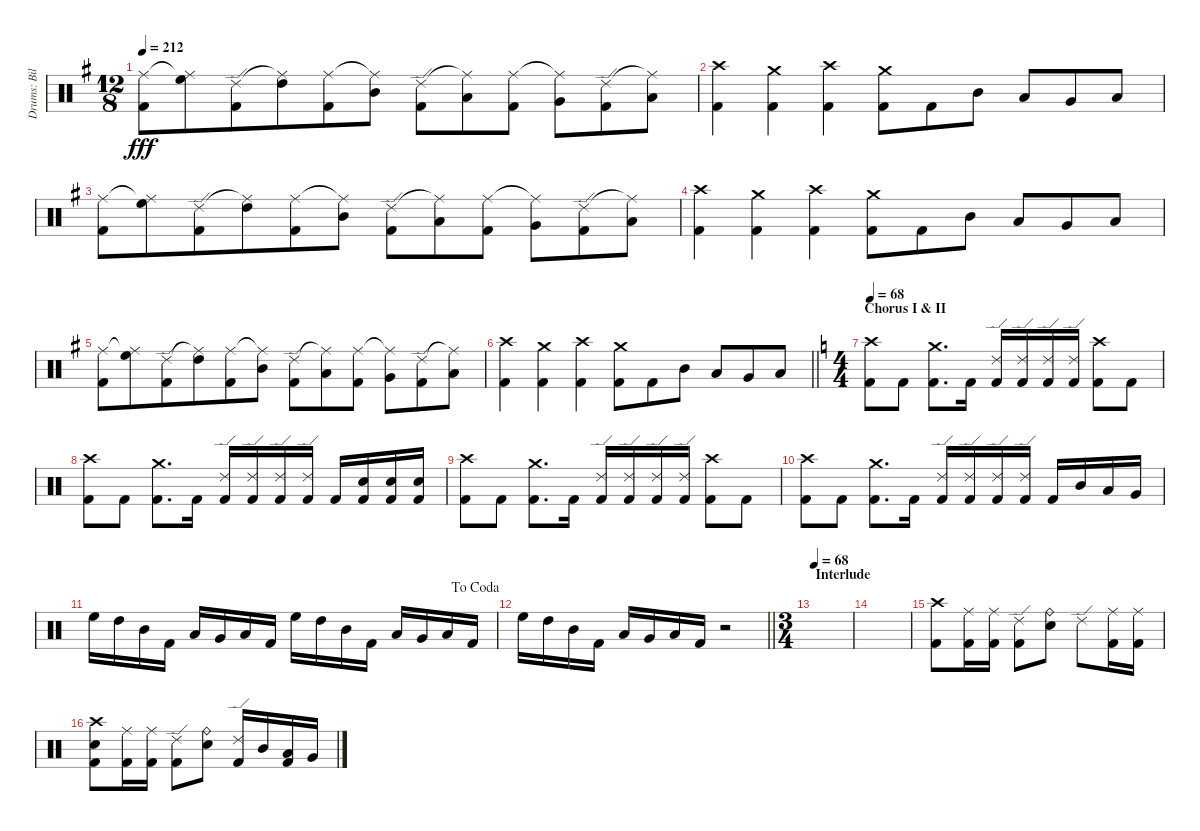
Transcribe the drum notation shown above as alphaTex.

\track ("Drums: Bill" "Drums: Bil") {instrument percussion}
\staff {score}
\articulation defaults
\ts (12 8)
\tempo 212
\clef neutral
\ks g
("Ride (middle)" "Kick (hit) 2").8{dy fff} ("Ride (middle)"{t} "High Floor Tom (hit)").8 ("Ride (edge) 2" "Kick (hit) 2").8{beam merge} ("Ride (middle)"{t} "High Tom (hit)").8 ("Ride (middle)" "Kick (hit) 2").8 ("Ride (middle)"{t} "Mid Tom (hit)").8 ("Ride (edge) 2" "Kick (hit) 2").8{beam merge} ("Ride (middle)"{t} "Low Tom (hit)").8 ("Ride (middle)" "Kick (hit) 2").8 ("Ride (middle)"{t} "Very Low Tom (hit)").8 ("Ride (edge) 2" "Kick (hit) 2").8{beam merge} ("Ride (middle)"{t} "Low Floor Tom (hit)").8 |
("Crash high (hit)" "Kick (hit) 2").4 ("Crash medium (hit)" "Kick (hit) 2").4 ("Crash high (hit)" "Kick (hit) 2").4 ("Crash medium (hit)" "Kick (hit) 2").8 "Kick (hit) 2".8 "Mid Tom (hit)".8 "Low Tom (hit)".8 "Very Low Tom (hit)".8 "Low Floor Tom (hit)".8 |
("Ride (middle)" "Kick (hit) 2").8 ("Ride (middle)"{t} "High Floor Tom (hit)").8 ("Ride (edge) 2" "Kick (hit) 2").8{beam merge} ("Ride (middle)"{t} "High Tom (hit)").8 ("Ride (middle)" "Kick (hit) 2").8 ("Ride (middle)"{t} "Mid Tom (hit)").8 ("Ride (edge) 2" "Kick (hit) 2").8{beam merge} ("Ride (middle)"{t} "Low Tom (hit)").8 ("Ride (middle)" "Kick (hit) 2").8 ("Ride (middle)"{t} "Very Low Tom (hit)").8 ("Ride (edge) 2" "Kick (hit) 2").8{beam merge} ("Ride (middle)"{t} "Low Floor Tom (hit)").8 |
("Crash high (hit)" "Kick (hit) 2").4 ("Crash medium (hit)" "Kick (hit) 2").4 ("Crash high (hit)" "Kick (hit) 2").4 ("Crash medium (hit)" "Kick (hit) 2").8 "Kick (hit) 2".8 "Mid Tom (hit)".8 "Low Tom (hit)".8 "Very Low Tom (hit)".8 "Low Floor Tom (hit)".8 |
("Ride (middle)" "Kick (hit) 2").8 ("Ride (middle)"{t} "High Floor Tom (hit)").8 ("Ride (edge) 2" "Kick (hit) 2").8{beam merge} ("Ride (middle)"{t} "High Tom (hit)").8 ("Ride (middle)" "Kick (hit) 2").8 ("Ride (middle)"{t} "Mid Tom (hit)").8 ("Ride (edge) 2" "Kick (hit) 2").8{beam merge} ("Ride (middle)"{t} "Low Tom (hit)").8 ("Ride (middle)" "Kick (hit) 2").8 ("Ride (middle)"{t} "Very Low Tom (hit)").8 ("Ride (edge) 2" "Kick (hit) 2").8{beam merge} ("Ride (middle)"{t} "Low Floor Tom (hit)").8 |
\barLineRight lightlight
("Crash high (hit)" "Kick (hit) 2").4 ("Crash medium (hit)" "Kick (hit) 2").4 ("Crash high (hit)" "Kick (hit) 2").4 ("Crash medium (hit)" "Kick (hit) 2").8 "Kick (hit) 2".8 "Mid Tom (hit)".8 "Low Tom (hit)".8 "Very Low Tom (hit)".8 "Low Floor Tom (hit)".8 |
\ts (4 4)
\section ("" "Chorus I & II")
\tempo 68
\ks c
("Crash high (hit)" "Kick (hit) 2").8 "Kick (hit) 2".8 ("Crash medium (hit)" "Kick (hit) 2").8{d} "Kick (hit) 2".16 ("Ride (edge) 2" "Kick (hit) 2").16 ("Ride (edge) 2" "Kick (hit) 2").16 ("Ride (edge) 2" "Kick (hit) 2").16 ("Ride (edge) 2" "Kick (hit) 2").16 ("Crash high (hit)" "Kick (hit) 2").8 "Kick (hit) 2".8 |
("Crash high (hit)" "Kick (hit) 2").8 "Kick (hit) 2".8 ("Crash medium (hit)" "Kick (hit) 2").8{d} "Kick (hit) 2".16 ("Ride (edge) 2" "Kick (hit) 2").16 ("Ride (edge) 2" "Kick (hit) 2").16 ("Ride (edge) 2" "Kick (hit) 2").16 ("Ride (edge) 2" "Kick (hit) 2").16 "Kick (hit) 2".16 ("Electric Snare (hit)" "Kick (hit) 2").16 ("Electric Snare (hit)" "Kick (hit) 2").16 ("Electric Snare (hit)" "Kick (hit) 2").16 |
("Crash high (hit)" "Kick (hit) 2").8 "Kick (hit) 2".8 ("Crash medium (hit)" "Kick (hit) 2").8{d} "Kick (hit) 2".16 ("Ride (edge) 2" "Kick (hit) 2").16 ("Ride (edge) 2" "Kick (hit) 2").16 ("Ride (edge) 2" "Kick (hit) 2").16 ("Ride (edge) 2" "Kick (hit) 2").16 ("Crash high (hit)" "Kick (hit) 2").8 "Kick (hit) 2".8 |
("Crash high (hit)" "Kick (hit) 2").8 "Kick (hit) 2".8 ("Crash medium (hit)" "Kick (hit) 2").8{d} "Kick (hit) 2".16 ("Ride (edge) 2" "Kick (hit) 2").16 ("Ride (edge) 2" "Kick (hit) 2").16 ("Ride (edge) 2" "Kick (hit) 2").16 ("Ride (edge) 2" "Kick (hit) 2").16 "Kick (hit) 2".16 "Mid Tom (hit)".16 "Low Tom (hit)".16 "Very Low Tom (hit)".16 |
\jump dacoda "High Floor Tom (hit)".16 "High Tom (hit)".16 "Mid Tom (hit)".16 "Kick (hit) 2".16 "Low Tom (hit)".16 "Very Low Tom (hit)".16 "Low Floor Tom (hit)".16 "Kick (hit) 2".16 "High Floor Tom (hit)".16 "High Tom (hit)".16 "Mid Tom (hit)".16 "Kick (hit) 2".16 "Low Tom (hit)".16 "Very Low Tom (hit)".16 "Low Floor Tom (hit)".16 "Kick (hit) 2".16
|
\barLineRight lightlight "High Floor Tom (hit)".16 "High Tom (hit)".16 "Mid Tom (hit)".16 "Kick (hit) 2".16 "Low Tom (hit)".16 "Very Low Tom (hit)".16 "Low Floor Tom (hit)".16 "Kick (hit) 2".16
r.2 |
\ts (3 4)
\section ("" "Interlude")
\tempo 68
|
|
("Crash high (hit)" "Kick (hit) 2").8 ("Ride (middle)" "Kick (hit) 2").16 ("Ride (middle)" "Kick (hit) 2").16 ("Ride (edge) 2" "Kick (hit) 2").8 ("Ride (bell)" "Electric Snare (hit)").8 "Ride (edge) 2".8 ("Ride (middle)" "Kick (hit) 2").16 ("Ride (middle)" "Kick (hit) 2").16 |
("Crash high (hit)" "Electric Snare (hit)" "Kick (hit) 2").8 ("Ride (middle)" "Kick (hit) 2").16 ("Ride (middle)" "Kick (hit) 2").16 ("Ride (edge) 2" "Kick (hit) 2").8 ("Ride (bell)" "Electric Snare (hit)").8 ("Ride (edge) 2" "Kick (hit) 2").16 "Mid Tom (hit)".16 ("Low Tom (hit)" "Kick (hit) 2").16 "Very Low Tom (hit)".16
